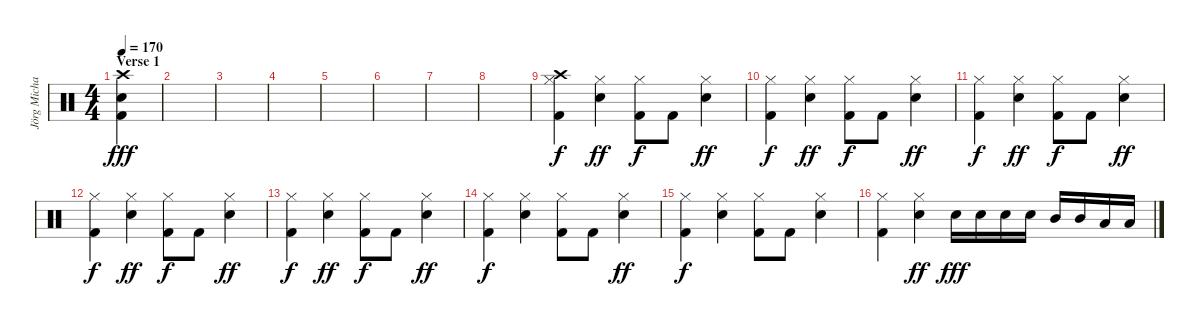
\track ("Jörg Michael" "Jörg Micha") {instrument percussion}
\staff {score}
\articulation defaults
\ts (4 4)
\section ("" "Verse 1")
\tempo 170
\clef neutral
\ks c
("Kick (hit) 2" "Electric Snare (hit)" "Crash high (hit)").4{dy fff} |
|
|
|
|
|
|
|
("Kick (hit) 2" "Hi-Hat (closed)" "Crash high (hit)").4{dy f} ("Electric Snare (hit)" "Hi-Hat (closed)").4{dy ff} ("Kick (hit) 2" "Hi-Hat (closed)").8{dy f} "Kick (hit) 2".8 ("Electric Snare (hit)" "Hi-Hat (closed)").4{dy ff} |
("Kick (hit) 2" "Hi-Hat (closed)").4{dy f} ("Electric Snare (hit)" "Hi-Hat (closed)").4{dy ff} ("Kick (hit) 2" "Hi-Hat (closed)").8{dy f} "Kick (hit) 2".8 ("Electric Snare (hit)" "Hi-Hat (closed)").4{dy ff} |
("Kick (hit) 2" "Hi-Hat (closed)").4{dy f} ("Electric Snare (hit)" "Hi-Hat (closed)").4{dy ff} ("Kick (hit) 2" "Hi-Hat (closed)").8{dy f} "Kick (hit) 2".8 ("Electric Snare (hit)" "Hi-Hat (closed)").4{dy ff} |
("Kick (hit) 2" "Hi-Hat (closed)").4{dy f} ("Electric Snare (hit)" "Hi-Hat (closed)").4{dy ff} ("Kick (hit) 2" "Hi-Hat (closed)").8{dy f} "Kick (hit) 2".8 ("Electric Snare (hit)" "Hi-Hat (closed)").4{dy ff} |
("Kick (hit) 2" "Hi-Hat (closed)").4{dy f} ("Electric Snare (hit)" "Hi-Hat (closed)").4{dy ff} ("Kick (hit) 2" "Hi-Hat (closed)").8{dy f} "Kick (hit) 2".8 ("Electric Snare (hit)" "Hi-Hat (closed)").4{dy ff} |
("Kick (hit) 2" "Hi-Hat (closed)").4{dy f} ("Electric Snare (hit)" "Hi-Hat (closed)").4 ("Kick (hit) 2" "Hi-Hat (closed)").8 "Kick (hit) 2".8 ("Electric Snare (hit)" "Hi-Hat (closed)").4{dy ff} |
("Kick (hit) 2" "Hi-Hat (closed)").4{dy f} ("Electric Snare (hit)" "Hi-Hat (closed)").4 ("Kick (hit) 2" "Hi-Hat (closed)").8 "Kick (hit) 2".8 ("Electric Snare (hit)" "Hi-Hat (closed)").4 |
("Kick (hit) 2" "Hi-Hat (closed)").4 ("Electric Snare (hit)" "Hi-Hat (closed)").4{dy ff} "Electric Snare (hit)".16{dy fff} "Electric Snare (hit)".16 "Electric Snare (hit)".16 "Electric Snare (hit)".16 "Mid Tom (hit)".16 "Mid Tom (hit)".16 "Low Tom (hit)".16 "Low Tom (hit)".16
